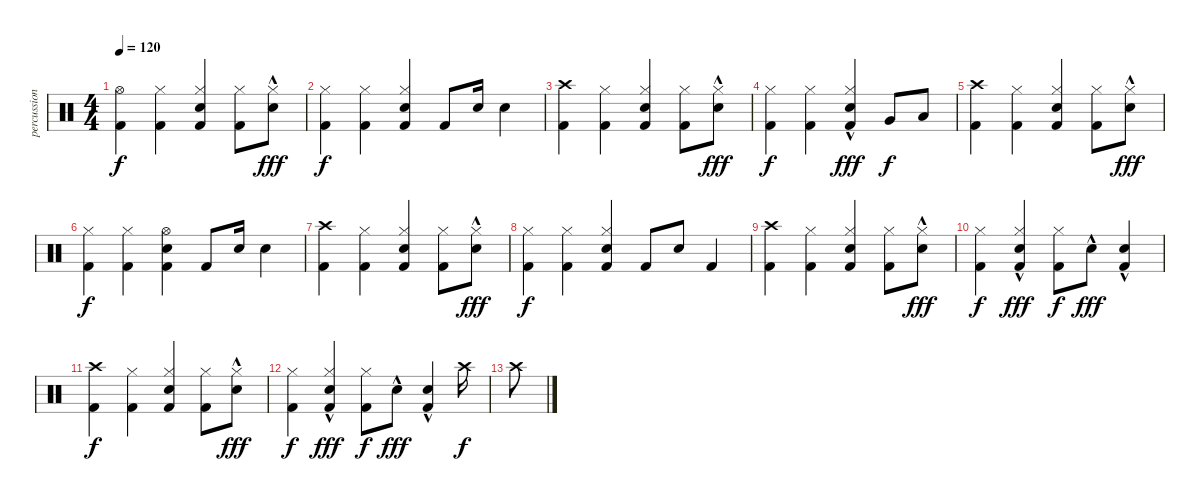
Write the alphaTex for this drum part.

\track ("percussion" "percussion") {instrument percussion}
\staff {score}
\articulation defaults
\ts (4 4)
\tempo 120
\clef neutral
\ks c
("Hi-Hat (open)" "Kick (hit) 2").4{dy f} ("Hi-Hat (closed)" "Kick (hit) 2").4 ("Hi-Hat (closed)" "Electric Snare (hit)" "Kick (hit) 2").4 ("Hi-Hat (closed)" "Kick (hit) 2").8 ("Hi-Hat (closed)" "Electric Snare (hit)"{hac}).8{dy fff} |
("Hi-Hat (closed)" "Kick (hit) 2").4{dy f} ("Hi-Hat (closed)" "Kick (hit) 2").4 ("Hi-Hat (closed)" "Electric Snare (hit)" "Kick (hit) 2").4 "Kick (hit) 2".8 "Electric Snare (hit)".16 "Electric Snare (hit)".4 |
("Crash high (hit)" "Kick (hit) 2").4 ("Hi-Hat (closed)" "Kick (hit) 2").4 ("Hi-Hat (closed)" "Electric Snare (hit)" "Kick (hit) 2").4 ("Hi-Hat (closed)" "Kick (hit) 2").8 ("Hi-Hat (closed)" "Electric Snare (hit)"{hac}).8{dy fff} |
("Hi-Hat (closed)" "Kick (hit) 2").4{dy f} ("Hi-Hat (closed)" "Kick (hit) 2").4 ("Hi-Hat (closed)" "Electric Snare (hit)"{hac} "Kick (hit) 2").4{dy fff} "Very Low Tom (hit)".8{dy f} "Low Floor Tom (hit)".8 |
("Crash high (hit)" "Kick (hit) 2").4 ("Hi-Hat (closed)" "Kick (hit) 2").4 ("Hi-Hat (closed)" "Electric Snare (hit)" "Kick (hit) 2").4 ("Hi-Hat (closed)" "Kick (hit) 2").8 ("Hi-Hat (closed)" "Electric Snare (hit)"{hac}).8{dy fff} |
("Hi-Hat (closed)" "Kick (hit) 2").4{dy f} ("Hi-Hat (closed)" "Kick (hit) 2").4 ("Hi-Hat (open)" "Electric Snare (hit)" "Kick (hit) 2").4 "Kick (hit) 2".8 "Electric Snare (hit)".16 "Electric Snare (hit)".4 |
("Crash high (hit)" "Kick (hit) 2").4 ("Hi-Hat (closed)" "Kick (hit) 2").4 ("Hi-Hat (closed)" "Electric Snare (hit)" "Kick (hit) 2").4 ("Hi-Hat (closed)" "Kick (hit) 2").8 ("Hi-Hat (closed)" "Electric Snare (hit)"{hac}).8{dy fff} |
("Hi-Hat (closed)" "Kick (hit) 2").4{dy f} ("Hi-Hat (closed)" "Kick (hit) 2").4 ("Hi-Hat (closed)" "Electric Snare (hit)" "Kick (hit) 2").4 "Kick (hit) 2".8 "Electric Snare (hit)".8 "Kick (hit) 2".4 |
("Crash high (hit)" "Kick (hit) 2").4 ("Hi-Hat (closed)" "Kick (hit) 2").4 ("Hi-Hat (closed)" "Electric Snare (hit)" "Kick (hit) 2").4 ("Hi-Hat (closed)" "Kick (hit) 2").8 ("Hi-Hat (closed)" "Electric Snare (hit)"{hac}).8{dy fff} |
("Hi-Hat (closed)" "Kick (hit) 2").4{dy f} ("Hi-Hat (closed)" "Electric Snare (hit)"{hac} "Kick (hit) 2").4{dy fff} ("Hi-Hat (closed)" "Kick (hit) 2").8{dy f} "Electric Snare (hit)"{hac}.8{dy fff} ("Electric Snare (hit)"{hac} "Kick (hit) 2").4 |
("Crash high (hit)" "Kick (hit) 2").4{dy f} ("Hi-Hat (closed)" "Kick (hit) 2").4 ("Hi-Hat (closed)" "Electric Snare (hit)" "Kick (hit) 2").4 ("Hi-Hat (closed)" "Kick (hit) 2").8 ("Hi-Hat (closed)" "Electric Snare (hit)"{hac}).8{dy fff} |
("Hi-Hat (closed)" "Kick (hit) 2").4{dy f} ("Hi-Hat (closed)" "Electric Snare (hit)"{hac} "Kick (hit) 2").4{dy fff} ("Hi-Hat (closed)" "Kick (hit) 2").8{dy f} "Electric Snare (hit)"{hac}.8{dy fff} ("Electric Snare (hit)"{hac} "Kick (hit) 2").4 "Crash high (hit)".16{dy f} |
"Crash high (hit)".8
